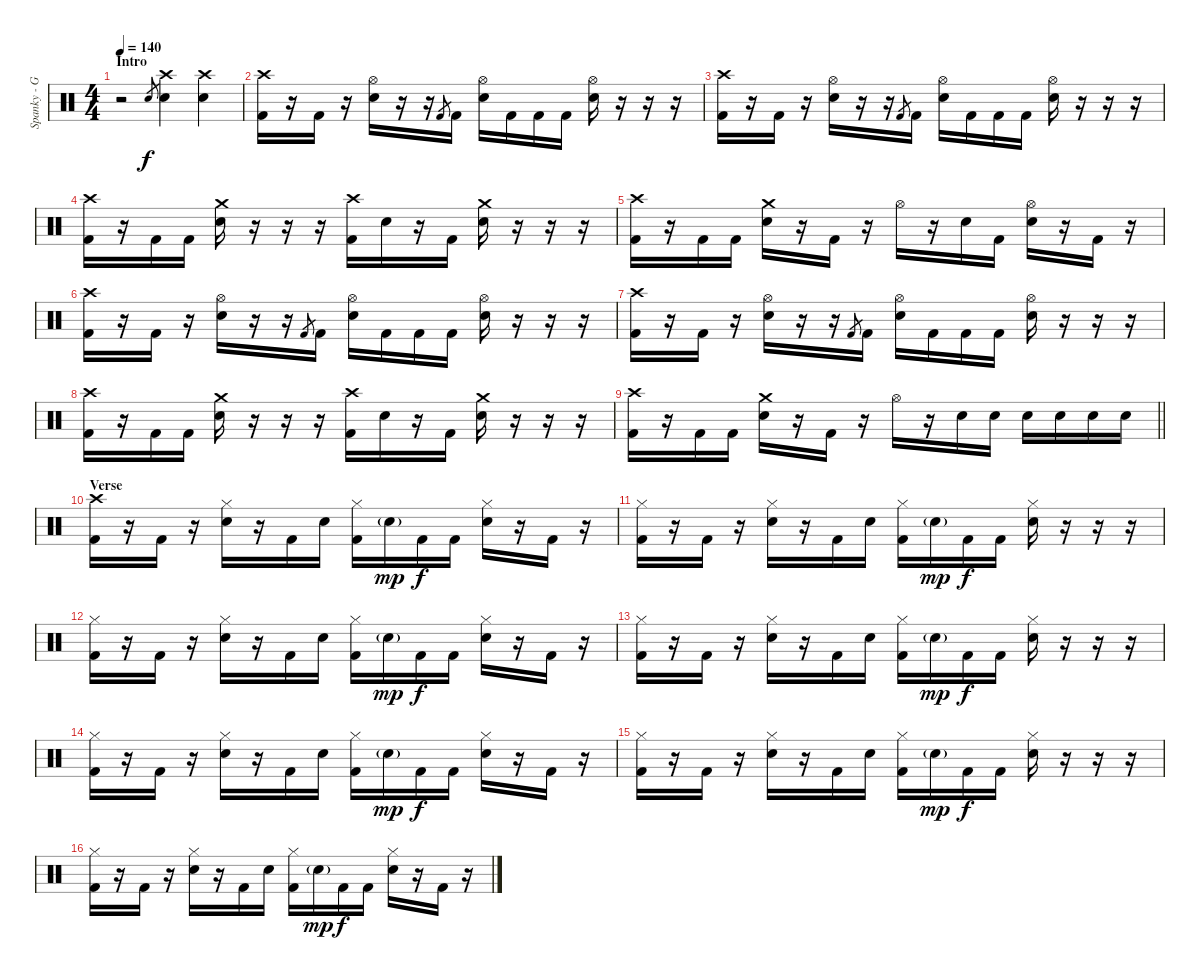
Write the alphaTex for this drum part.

\track ("Spanky - G (Ex-drummer)" "Spanky - G") {instrument percussion}
\staff {score}
\articulation defaults
\ts (4 4)
\section ("" "Intro")
\tempo 140
\clef neutral
\ks c
r.2{dy f} "Electric Snare (hit)".8{gr} ("Crash high (hit)" "Electric Snare (hit)").4 ("Crash high (hit)" "Electric Snare (hit)").4 |
("Crash high (hit)" "Kick (hit) 2").16 r.16 "Kick (hit) 2".16 r.16 ("Hi-Hat (open)" "Electric Snare (hit)").16 r.16 r.16 "Kick (hit) 2".8{gr} "Kick (hit) 2".16 ("Hi-Hat (open)" "Electric Snare (hit)").16 "Kick (hit) 2".16 "Kick (hit) 2".16 "Kick (hit) 2".16 ("Hi-Hat (open)" "Electric Snare (hit)").16 r.16 r.16 r.16 |
("Crash high (hit)" "Kick (hit) 2").16 r.16 "Kick (hit) 2".16 r.16 ("Hi-Hat (open)" "Electric Snare (hit)").16 r.16 r.16 "Kick (hit) 2".8{gr} "Kick (hit) 2".16 ("Hi-Hat (open)" "Electric Snare (hit)").16 "Kick (hit) 2".16 "Kick (hit) 2".16 "Kick (hit) 2".16 ("Hi-Hat (open)" "Electric Snare (hit)").16 r.16 r.16 r.16 |
("Crash high (hit)" "Kick (hit) 2").16 r.16 "Kick (hit) 2".16 "Kick (hit) 2".16 ("Crash medium (hit)" "Electric Snare (hit)").16 r.16 r.16 r.16 ("Crash high (hit)" "Kick (hit) 2").16 "Electric Snare (hit)".16 r.16 "Kick (hit) 2".16 ("Crash medium (hit)" "Electric Snare (hit)").16 r.16 r.16 r.16 |
("Crash high (hit)" "Kick (hit) 2").16 r.16 "Kick (hit) 2".16 "Kick (hit) 2".16 ("Crash medium (hit)" "Electric Snare (hit)").16 r.16 "Kick (hit) 2".16 r.16 "Hi-Hat (open)".16 r.16 "Electric Snare (hit)".16 "Kick (hit) 2".16 ("Hi-Hat (open)" "Electric Snare (hit)").16 r.16 "Kick (hit) 2".16 r.16 |
("Crash high (hit)" "Kick (hit) 2").16 r.16 "Kick (hit) 2".16 r.16 ("Hi-Hat (open)" "Electric Snare (hit)").16 r.16 r.16 "Kick (hit) 2".8{gr} "Kick (hit) 2".16 ("Hi-Hat (open)" "Electric Snare (hit)").16 "Kick (hit) 2".16 "Kick (hit) 2".16 "Kick (hit) 2".16 ("Hi-Hat (open)" "Electric Snare (hit)").16 r.16 r.16 r.16 |
("Crash high (hit)" "Kick (hit) 2").16 r.16 "Kick (hit) 2".16 r.16 ("Hi-Hat (open)" "Electric Snare (hit)").16 r.16 r.16 "Kick (hit) 2".8{gr} "Kick (hit) 2".16 ("Hi-Hat (open)" "Electric Snare (hit)").16 "Kick (hit) 2".16 "Kick (hit) 2".16 "Kick (hit) 2".16 ("Hi-Hat (open)" "Electric Snare (hit)").16 r.16 r.16 r.16 |
("Crash high (hit)" "Kick (hit) 2").16 r.16 "Kick (hit) 2".16 "Kick (hit) 2".16 ("Crash medium (hit)" "Electric Snare (hit)").16 r.16 r.16 r.16 ("Crash high (hit)" "Kick (hit) 2").16 "Electric Snare (hit)".16 r.16 "Kick (hit) 2".16 ("Crash medium (hit)" "Electric Snare (hit)").16 r.16 r.16 r.16 |
\barLineRight lightlight
("Crash high (hit)" "Kick (hit) 2").16 r.16 "Kick (hit) 2".16 "Kick (hit) 2".16 ("Crash medium (hit)" "Electric Snare (hit)").16 r.16 "Kick (hit) 2".16 r.16 "Hi-Hat (open)".16 r.16 "Electric Snare (hit)".16 "Electric Snare (hit)".16 "Electric Snare (hit)".16 "Electric Snare (hit)".16 "Electric Snare (hit)".16 "Electric Snare (hit)".16 |
\section ("" "Verse")
("Crash high (hit)" "Kick (hit) 2").16 r.16 "Kick (hit) 2".16 r.16 ("Hi-Hat (closed)" "Electric Snare (hit)").16 r.16 "Kick (hit) 2".16 "Electric Snare (hit)".16 ("Hi-Hat (closed)" "Kick (hit) 2").16 "Electric Snare (hit)"{g}.16{dy mp} "Kick (hit) 2".16{dy f} "Kick (hit) 2".16 ("Hi-Hat (closed)" "Electric Snare (hit)").16 r.16 "Kick (hit) 2".16 r.16 |
("Hi-Hat (closed)" "Kick (hit) 2").16 r.16 "Kick (hit) 2".16 r.16 ("Hi-Hat (closed)" "Electric Snare (hit)").16 r.16 "Kick (hit) 2".16 "Electric Snare (hit)".16 ("Hi-Hat (closed)" "Kick (hit) 2").16 "Electric Snare (hit)"{g}.16{dy mp} "Kick (hit) 2".16{dy f} "Kick (hit) 2".16 ("Hi-Hat (closed)" "Electric Snare (hit)").16 r.16 r.16 r.16 |
("Hi-Hat (closed)" "Kick (hit) 2").16 r.16 "Kick (hit) 2".16 r.16 ("Hi-Hat (closed)" "Electric Snare (hit)").16 r.16 "Kick (hit) 2".16 "Electric Snare (hit)".16 ("Hi-Hat (closed)" "Kick (hit) 2").16 "Electric Snare (hit)"{g}.16{dy mp} "Kick (hit) 2".16{dy f} "Kick (hit) 2".16 ("Hi-Hat (closed)" "Electric Snare (hit)").16 r.16 "Kick (hit) 2".16 r.16 |
("Hi-Hat (closed)" "Kick (hit) 2").16 r.16 "Kick (hit) 2".16 r.16 ("Hi-Hat (closed)" "Electric Snare (hit)").16 r.16 "Kick (hit) 2".16 "Electric Snare (hit)".16 ("Hi-Hat (closed)" "Kick (hit) 2").16 "Electric Snare (hit)"{g}.16{dy mp} "Kick (hit) 2".16{dy f} "Kick (hit) 2".16 ("Hi-Hat (closed)" "Electric Snare (hit)").16 r.16 r.16 r.16 |
("Hi-Hat (closed)" "Kick (hit) 2").16 r.16 "Kick (hit) 2".16 r.16 ("Hi-Hat (closed)" "Electric Snare (hit)").16 r.16 "Kick (hit) 2".16 "Electric Snare (hit)".16 ("Hi-Hat (closed)" "Kick (hit) 2").16 "Electric Snare (hit)"{g}.16{dy mp} "Kick (hit) 2".16{dy f} "Kick (hit) 2".16 ("Hi-Hat (closed)" "Electric Snare (hit)").16 r.16 "Kick (hit) 2".16 r.16 |
("Hi-Hat (closed)" "Kick (hit) 2").16 r.16 "Kick (hit) 2".16 r.16 ("Hi-Hat (closed)" "Electric Snare (hit)").16 r.16 "Kick (hit) 2".16 "Electric Snare (hit)".16 ("Hi-Hat (closed)" "Kick (hit) 2").16 "Electric Snare (hit)"{g}.16{dy mp} "Kick (hit) 2".16{dy f} "Kick (hit) 2".16 ("Hi-Hat (closed)" "Electric Snare (hit)").16 r.16 r.16 r.16 |
("Hi-Hat (closed)" "Kick (hit) 2").16 r.16 "Kick (hit) 2".16 r.16 ("Hi-Hat (closed)" "Electric Snare (hit)").16 r.16 "Kick (hit) 2".16 "Electric Snare (hit)".16 ("Hi-Hat (closed)" "Kick (hit) 2").16 "Electric Snare (hit)"{g}.16{dy mp} "Kick (hit) 2".16{dy f} "Kick (hit) 2".16 ("Hi-Hat (closed)" "Electric Snare (hit)").16 r.16 "Kick (hit) 2".16 r.16
